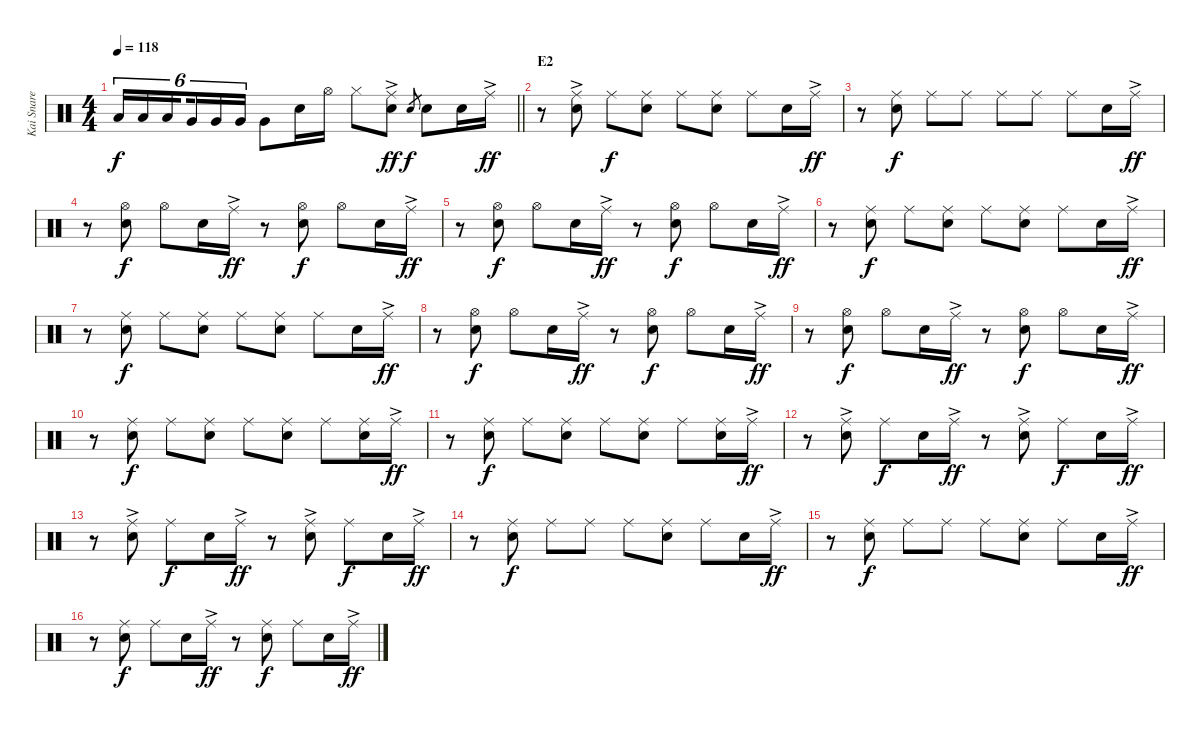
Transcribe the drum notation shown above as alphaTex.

\track ("Kai Snare" "Kai Snare") {instrument percussion}
\staff {score}
\articulation defaults
\ts (4 4)
\tempo 118
\clef neutral
\barLineRight lightlight
\ks c "Low Tom (hit)".16{tu (6 4) dy f} "Low Tom (hit)".16{tu (6 4)} "Low Tom (hit)".16{tu (6 4) beam splitsecondary} "Very Low Tom (hit)".16{tu (6 4)} "Very Low Tom (hit)".16{tu (6 4)} "Very Low Tom (hit)".16{tu (6 4)} "Very Low Tom (hit)".8 "Snare (hit) 2".16 "Hi-Hat (open)".16 "Hi-Hat (closed)".8
("Ride (middle)"{ac} "Snare (hit) 2").8{dy ff} "Snare (hit) 2".8{gr dy f} "Snare (hit) 2".8 "Snare (hit) 2".16 "Ride (middle)"{ac}.16{dy ff} |
\section ("" "E2")
r.8 ("Ride (middle)"{ac} "Snare (hit) 2").8 "Ride (middle)".8{dy f} ("Ride (middle)" "Snare (hit) 2").8 "Ride (middle)".8 ("Ride (middle)" "Snare (hit) 2").8 "Ride (middle)".8 "Snare (hit) 2".16 "Ride (middle)"{ac}.16{dy ff} |
r.8 ("Ride (middle)" "Snare (hit) 2").8{dy f} "Ride (middle)".8 "Ride (middle)".8 "Ride (middle)".8 "Ride (middle)".8 "Ride (middle)".8 "Snare (hit) 2".16 "Ride (middle)"{ac}.16{dy ff} |
r.8 ("Hi-Hat (open)" "Snare (hit) 2").8{dy f} "Hi-Hat (open)".8 "Snare (hit) 2".16 "Ride (middle)"{ac}.16{dy ff} r.8 ("Hi-Hat (open)" "Snare (hit) 2").8{dy f} "Hi-Hat (open)".8 "Snare (hit) 2".16 "Ride (middle)"{ac}.16{dy ff} |
r.8 ("Hi-Hat (open)" "Snare (hit) 2").8{dy f} "Hi-Hat (open)".8 "Snare (hit) 2".16 "Ride (middle)"{ac}.16{dy ff} r.8 ("Hi-Hat (open)" "Snare (hit) 2").8{dy f} "Hi-Hat (open)".8 "Snare (hit) 2".16 "Ride (middle)"{ac}.16{dy ff} |
r.8 ("Ride (middle)" "Snare (hit) 2").8{dy f} "Ride (middle)".8 ("Ride (middle)" "Snare (hit) 2").8 "Ride (middle)".8 ("Ride (middle)" "Snare (hit) 2").8 "Ride (middle)".8 "Snare (hit) 2".16 "Ride (middle)"{ac}.16{dy ff} |
r.8 ("Ride (middle)" "Snare (hit) 2").8{dy f} "Ride (middle)".8 ("Ride (middle)" "Snare (hit) 2").8 "Ride (middle)".8 ("Ride (middle)" "Snare (hit) 2").8 "Ride (middle)".8 "Snare (hit) 2".16 "Ride (middle)"{ac}.16{dy ff} |
r.8 ("Hi-Hat (open)" "Snare (hit) 2").8{dy f} "Hi-Hat (open)".8 "Snare (hit) 2".16 "Ride (middle)"{ac}.16{dy ff} r.8 ("Hi-Hat (open)" "Snare (hit) 2").8{dy f} "Hi-Hat (open)".8 "Snare (hit) 2".16 "Ride (middle)"{ac}.16{dy ff} |
r.8 ("Hi-Hat (open)" "Snare (hit) 2").8{dy f} "Hi-Hat (open)".8 "Snare (hit) 2".16 "Ride (middle)"{ac}.16{dy ff} r.8 ("Hi-Hat (open)" "Snare (hit) 2").8{dy f} "Hi-Hat (open)".8 "Snare (hit) 2".16 "Ride (middle)"{ac}.16{dy ff} |
r.8 ("Ride (middle)" "Snare (hit) 2").8{dy f} "Ride (middle)".8 ("Ride (middle)" "Snare (hit) 2").8 "Ride (middle)".8 ("Ride (middle)" "Snare (hit) 2").8 "Ride (middle)".8 ("Ride (middle)" "Snare (hit) 2").16 "Ride (middle)"{ac}.16{dy ff} |
r.8 ("Ride (middle)" "Snare (hit) 2").8{dy f} "Ride (middle)".8 ("Ride (middle)" "Snare (hit) 2").8 "Ride (middle)".8 ("Ride (middle)" "Snare (hit) 2").8 "Ride (middle)".8 ("Ride (middle)" "Snare (hit) 2").16 "Ride (middle)"{ac}.16{dy ff} |
r.8 ("Ride (middle)"{ac} "Snare (hit) 2").8 "Ride (middle)".8{dy f} "Snare (hit) 2".16 "Ride (middle)"{ac}.16{dy ff} r.8 ("Ride (middle)"{ac} "Snare (hit) 2").8 "Ride (middle)".8{dy f} "Snare (hit) 2".16 "Ride (middle)"{ac}.16{dy ff} |
r.8 ("Ride (middle)"{ac} "Snare (hit) 2").8 "Ride (middle)".8{dy f} "Snare (hit) 2".16 "Ride (middle)"{ac}.16{dy ff} r.8 ("Ride (middle)"{ac} "Snare (hit) 2").8 "Ride (middle)".8{dy f} "Snare (hit) 2".16 "Ride (middle)"{ac}.16{dy ff} |
r.8 ("Ride (middle)" "Snare (hit) 2").8{dy f} "Ride (middle)".8 "Ride (middle)".8 "Ride (middle)".8 ("Ride (middle)" "Snare (hit) 2").8 "Ride (middle)".8 "Snare (hit) 2".16 "Ride (middle)"{ac}.16{dy ff} |
r.8 ("Ride (middle)" "Snare (hit) 2").8{dy f} "Ride (middle)".8 "Ride (middle)".8 "Ride (middle)".8 ("Ride (middle)" "Snare (hit) 2").8 "Ride (middle)".8 "Snare (hit) 2".16 "Ride (middle)"{ac}.16{dy ff} |
r.8 ("Ride (middle)" "Snare (hit) 2").8{dy f} "Ride (middle)".8 "Snare (hit) 2".16 "Ride (middle)"{ac}.16{dy ff} r.8 ("Ride (middle)" "Snare (hit) 2").8{dy f} "Ride (middle)".8 "Snare (hit) 2".16 "Ride (middle)"{ac}.16{dy ff}
